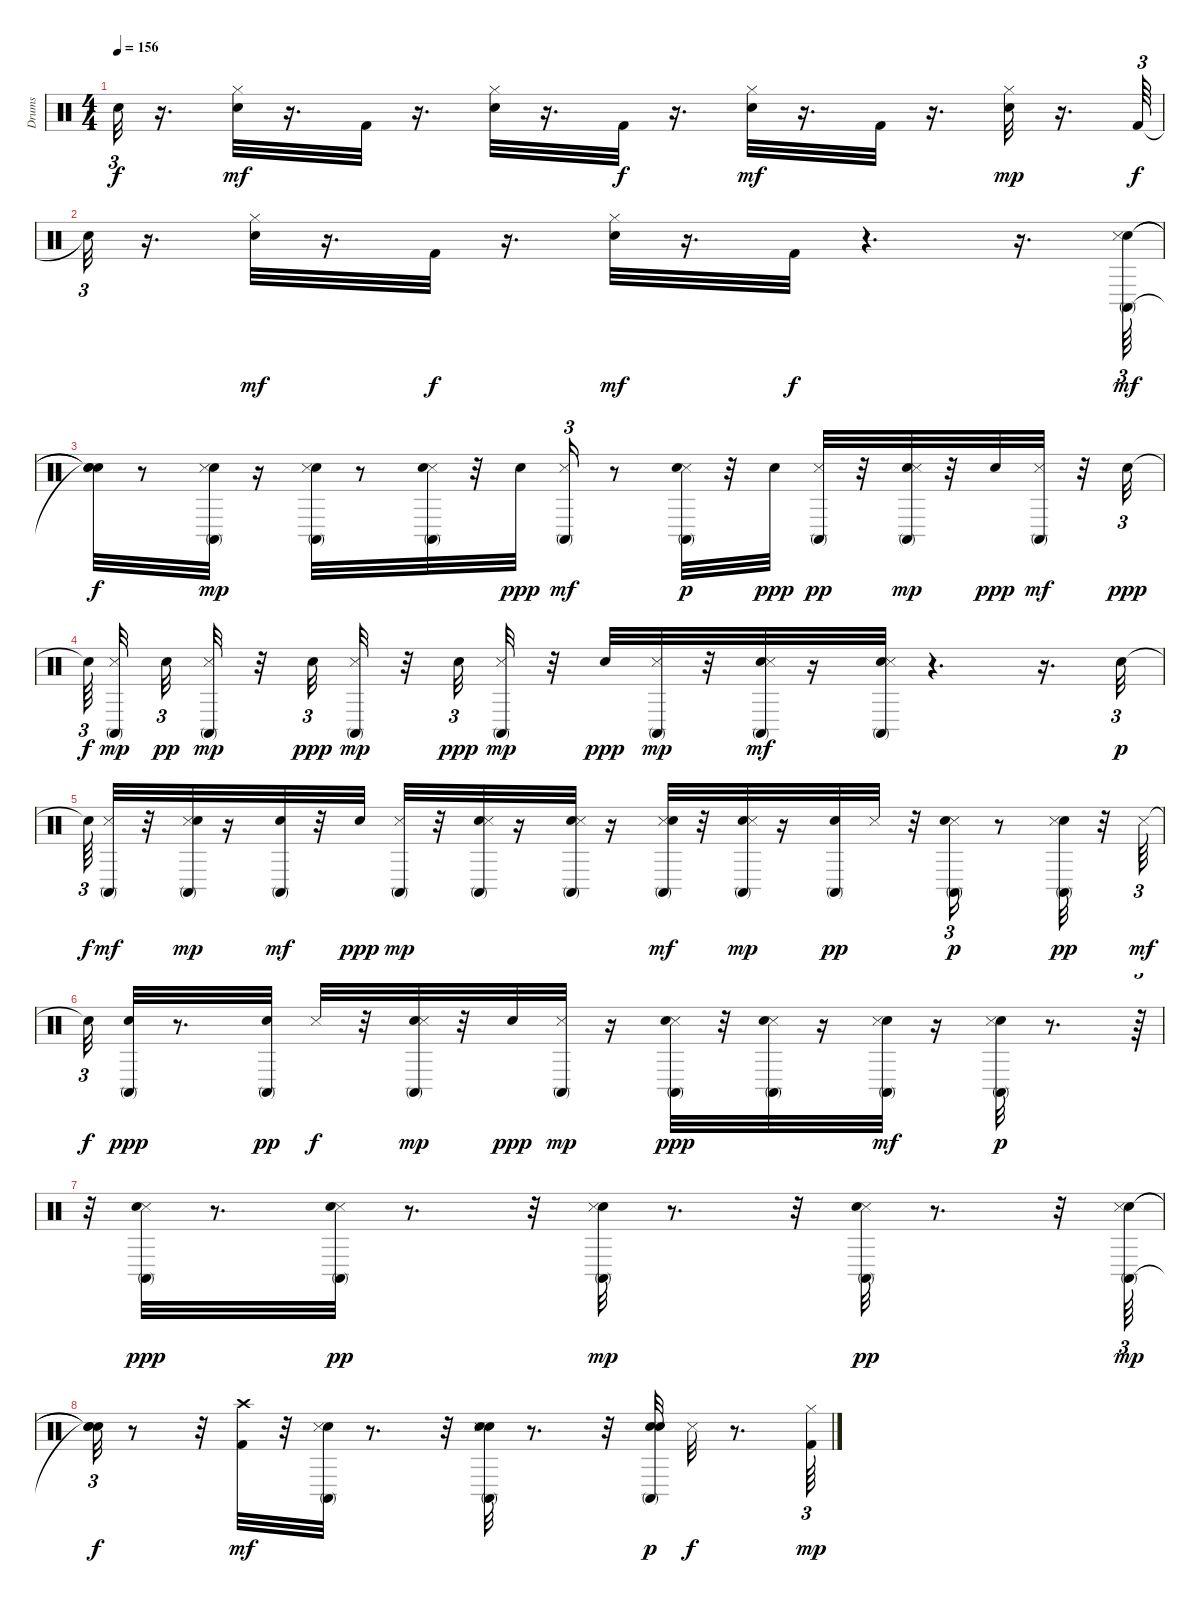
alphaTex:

\track ("Drums" "Drums") {instrument percussion}
\staff {score}
\articulation defaults
\ts (4 4)
\tempo 156
\clef neutral
\ks c "Snare (hit)"{t}.32{tu (3 2) dy f}
r.16{d} ("Hi-Hat (closed)" "Electric Snare (hit)").32{dy mf} r.16{d} "Kick (hit) 2".32 r.16{d} ("Hi-Hat (closed)" "Electric Snare (hit)").32 r.16{d} "Kick (hit) 2".32{dy f} r.16{d} ("Hi-Hat (closed)" "Electric Snare (hit)").32{dy mf} r.16{d} "Kick (hit) 2".32 r.16{d} ("Hi-Hat (closed)" "Electric Snare (hit)").32{dy mp} r.16{d} "Kick (hit) 2".64{tu (3 2) dy f} |
"Snare (hit)"{t}.32{tu (3 2)} r.16{d} ("Hi-Hat (closed)" "Electric Snare (hit)").32{dy mf} r.16{d} "Kick (hit) 2".32{dy f} r.16{d} ("Hi-Hat (closed)" "Electric Snare (hit)").32{dy mf} r.16{d} "Kick (hit) 2".32{dy f} r.4{d} r.16{d} ("Hand Clap (hit)" "Conga high (mute)" "Snare (side stick) 3").64{tu (3 2) dy mf} |
("Snare (hit)"{t} "Snare (hit)"{t} "Snare (hit)"{t}).32{dy f} r.8 ("Hand Clap (hit)" "Conga high (mute)" "Snare (side stick) 3").32{dy mp} r.16 ("Hand Clap (hit)" "Snare (side stick) 3" "Conga high (mute)").32 r.8 ("Snare (side stick) 3" "Hand Clap (hit)" "Conga high (mute)").32 r.32 "Hand Clap (hit)".32{dy ppp} ("Conga high (mute)" "Snare (side stick) 3").16{tu (3 2) dy mf} r.8 ("Snare (side stick) 3" "Hand Clap (hit)" "Conga high (mute)").32{dy p} r.32 "Hand Clap (hit)".32{dy ppp} ("Conga high (mute)" "Snare (side stick) 3").32{dy pp} r.32 ("Hand Clap (hit)" "Snare (side stick) 3" "Conga high (mute)").32{dy mp} r.32 "Hand Clap (hit)".32{dy ppp} ("Conga high (mute)" "Snare (side stick) 3").32{dy mf} r.32 "Hand Clap (hit)".32{tu (3 2) dy ppp} |
"Snare (hit)"{t}.64{tu (3 2) dy f beam splitsecondary} ("Snare (side stick) 3" "Conga high (mute)").32{dy mp beam splitsecondary} "Hand Clap (hit)".32{tu (3 2) dy pp} ("Snare (side stick) 3" "Conga high (mute)").32{dy mp} r.32 "Hand Clap (hit)".32{tu (3 2) dy ppp} ("Conga high (mute)" "Snare (side stick) 3").32{dy mp} r.32 "Hand Clap (hit)".32{tu (3 2) dy ppp} ("Snare (side stick) 3" "Conga high (mute)").32{dy mp} r.32 "Hand Clap (hit)".32{dy ppp} ("Snare (side stick) 3" "Conga high (mute)").32{dy mp} r.32 ("Hand Clap (hit)" "Snare (side stick) 3" "Conga high (mute)").32{dy mf} r.16 ("Hand Clap (hit)" "Conga high (mute)" "Snare (side stick) 3").32 r.4{d} r.16{d} "Hand Clap (hit)".32{tu (3 2) dy p} |
"Snare (hit)"{t}.64{tu (3 2) dy f} ("Snare (side stick) 3" "Conga high (mute)").32{dy mf} r.32 ("Snare (side stick) 3" "Hand Clap (hit)" "Conga high (mute)").32{dy mp} r.16 ("Hand Clap (hit)" "Conga high (mute)").32{dy mf} r.32 "Hand Clap (hit)".32{dy ppp} ("Snare (side stick) 3" "Conga high (mute)").32{dy mp} r.32 ("Hand Clap (hit)" "Snare (side stick) 3" "Conga high (mute)").32 r.16 ("Hand Clap (hit)" "Conga high (mute)" "Snare (side stick) 3").32 r.16 ("Snare (side stick) 3" "Hand Clap (hit)" "Conga high (mute)").32{dy mf} r.32 ("Hand Clap (hit)" "Snare (side stick) 3" "Conga high (mute)").32{dy mp} r.16 ("Conga high (mute)" "Hand Clap (hit)").32{dy pp} "Snare (side stick) 3".32 r.32 ("Conga high (mute)" "Snare (side stick) 3" "Hand Clap (hit)").16{tu (3 2) dy p} r.8 ("Hand Clap (hit)" "Snare (side stick) 3" "Conga high (mute)").32{dy pp} r.32 "Snare (side stick) 3".64{tu (3 2) dy mf} |
"Snare (hit)"{t}.32{tu (3 2) dy f} ("Conga high (mute)" "Hand Clap (hit)").32{dy ppp} r.8{d} ("Conga high (mute)" "Hand Clap (hit)").32{dy pp} "Snare (side stick) 3".32{dy f} r.32 ("Hand Clap (hit)" "Snare (side stick) 3" "Conga high (mute)").32{dy mp} r.32 "Hand Clap (hit)".32{dy ppp} ("Conga high (mute)" "Snare (side stick) 3").32{dy mp} r.16 ("Snare (side stick) 3" "Conga high (mute)" "Hand Clap (hit)").32{dy ppp} r.32 ("Snare (side stick) 3" "Conga high (mute)" "Hand Clap (hit)").32 r.16 ("Hand Clap (hit)" "Conga high (mute)" "Snare (side stick) 3").32{dy mf} r.16 ("Hand Clap (hit)" "Snare (side stick) 3" "Conga high (mute)").32{dy p} r.8{d} r.64{tu (3 2)} |
r.32{tu (3 2)} ("Conga high (mute)" "Snare (side stick) 3" "Hand Clap (hit)").32{dy ppp} r.8{d} ("Snare (side stick) 3" "Conga high (mute)" "Hand Clap (hit)").32{dy pp} r.8{d} r.32 ("Hand Clap (hit)" "Conga high (mute)" "Snare (side stick) 3").32{dy mp} r.8{d} r.32 ("Snare (side stick) 3" "Conga high (mute)" "Hand Clap (hit)").32{dy pp} r.8{d} r.32 ("Conga high (mute)" "Hand Clap (hit)" "Snare (side stick) 3").64{tu (3 2) dy mp} |
("Snare (hit)"{t} "Snare (hit)"{t} "Snare (hit)"{t}).32{tu (3 2) dy f} r.8 r.32 ("Kick (hit) 2" "Crash high (hit)").32{dy mf} r.32 ("Hand Clap (hit)" "Snare (side stick) 3" "Conga high (mute)").32 r.8{d} r.32 ("Hand Clap (hit)" "Electric Snare (hit)" "Conga high (mute)" "Snare (side stick) 3").32 r.8{d} r.32 ("Hand Clap (hit)" "Electric Snare (hit)" "Conga high (mute)").32{dy p} "Snare (side stick) 3".32{dy f} r.8{d} ("Kick (hit) 2" "Hi-Hat (closed)").64{tu (3 2) dy mp}
